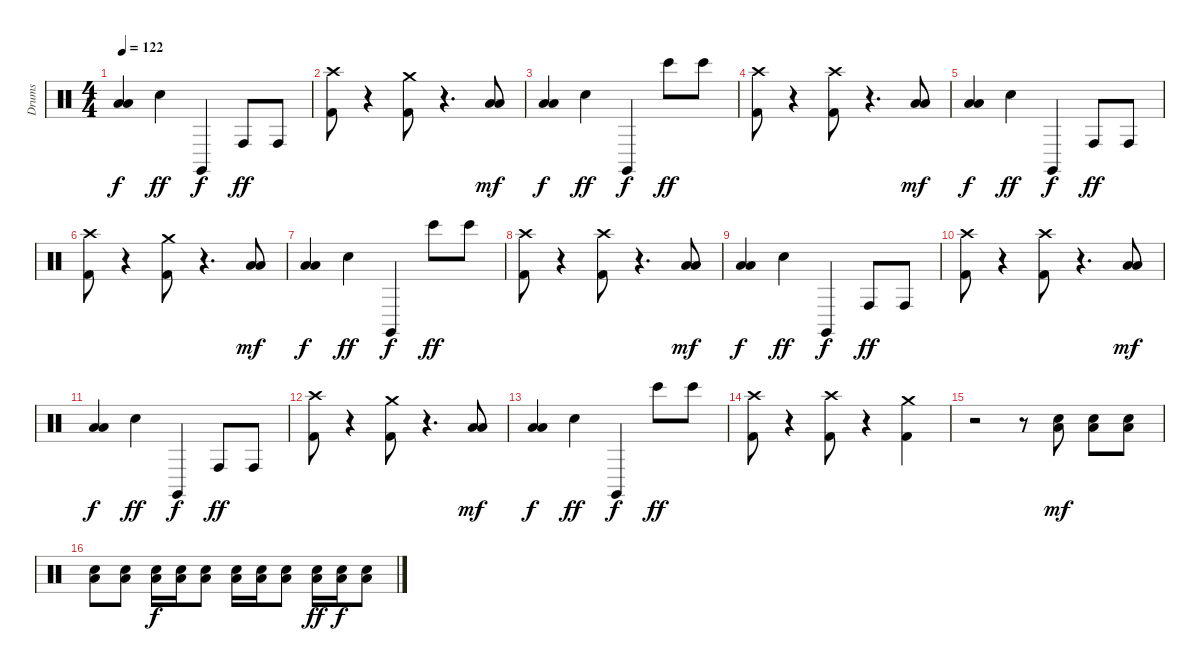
\track ("Drums" "Drums") {instrument percussion}
\staff {score}
\articulation defaults
\ts (4 4)
\tempo 122
\clef neutral
\ks c
("Low Tom (hit)" "Low Floor Tom (hit)").4{dy f} "Snare (hit) 2".4{dy ff} "Claves (hit)".4{dy f} "Conga high (hit)".8{dy ff} "Conga high (hit)".8 |
("Crash high (hit)" "Kick (hit) 2").8 r.4 ("Crash medium (hit)" "Kick (hit) 2").8 r.4{d} ("Low Floor Tom (hit)" "Low Tom (hit)").8{dy mf} |
("Low Tom (hit)" "Low Floor Tom (hit)").4{dy f} "Snare (hit) 2".4{dy ff} "Claves (hit)".4{dy f} "Bongo High (hit)".8{dy ff} "Bongo High (hit)".8 |
("Crash high (hit)" "Kick (hit) 2").8 r.4 ("Crash high (hit)" "Kick (hit) 2").8 r.4{d} ("Low Floor Tom (hit)" "Low Tom (hit)").8{dy mf} |
("Low Tom (hit)" "Low Floor Tom (hit)").4{dy f} "Snare (hit) 2".4{dy ff} "Claves (hit)".4{dy f} "Conga high (hit)".8{dy ff} "Conga high (hit)".8 |
("Crash high (hit)" "Kick (hit) 2").8 r.4 ("Crash medium (hit)" "Kick (hit) 2").8 r.4{d} ("Low Floor Tom (hit)" "Low Tom (hit)").8{dy mf} |
("Low Tom (hit)" "Low Floor Tom (hit)").4{dy f} "Snare (hit) 2".4{dy ff} "Claves (hit)".4{dy f} "Bongo High (hit)".8{dy ff} "Bongo High (hit)".8 |
("Crash high (hit)" "Kick (hit) 2").8 r.4 ("Crash high (hit)" "Kick (hit) 2").8 r.4{d} ("Low Floor Tom (hit)" "Low Tom (hit)").8{dy mf} |
("Low Tom (hit)" "Low Floor Tom (hit)").4{dy f} "Snare (hit) 2".4{dy ff} "Claves (hit)".4{dy f} "Conga high (hit)".8{dy ff} "Conga high (hit)".8 |
("Crash high (hit)" "Kick (hit) 2").8 r.4 ("Crash high (hit)" "Kick (hit) 2").8 r.4{d} ("Low Floor Tom (hit)" "Low Tom (hit)").8{dy mf} |
("Low Tom (hit)" "Low Floor Tom (hit)").4{dy f} "Snare (hit) 2".4{dy ff} "Claves (hit)".4{dy f} "Conga high (hit)".8{dy ff} "Conga high (hit)".8 |
("Crash high (hit)" "Kick (hit) 2").8 r.4 ("Crash medium (hit)" "Kick (hit) 2").8 r.4{d} ("Low Floor Tom (hit)" "Low Tom (hit)").8{dy mf} |
("Low Tom (hit)" "Low Floor Tom (hit)").4{dy f} "Snare (hit) 2".4{dy ff} "Claves (hit)".4{dy f} "Bongo High (hit)".8{dy ff} "Bongo High (hit)".8 |
("Crash high (hit)" "Kick (hit) 2").8 r.4 ("Crash high (hit)" "Kick (hit) 2").8 r.4 ("Crash medium (hit)" "Kick (hit) 2").4 |
r.2 r.8 ("Low Floor Tom (hit)" "Snare (hit) 2").8{dy mf} ("Low Floor Tom (hit)" "Snare (hit) 2").8 ("Snare (hit) 2" "Low Floor Tom (hit)").8 |
("Low Floor Tom (hit)" "Snare (hit) 2").8 ("Low Floor Tom (hit)" "Snare (hit) 2").8 ("Low Floor Tom (hit)" "Snare (hit) 2").16{dy f} ("Low Floor Tom (hit)" "Snare (hit) 2").16 ("Low Floor Tom (hit)" "Snare (hit) 2").8 ("Snare (hit) 2" "Low Floor Tom (hit)").16 ("Snare (hit) 2" "Low Floor Tom (hit)").16 ("Snare (hit) 2" "Low Floor Tom (hit)").8 ("Snare (hit) 2" "Low Floor Tom (hit)").16{dy ff} ("Snare (hit) 2" "Low Floor Tom (hit)").16{dy f} ("Snare (hit) 2" "Low Floor Tom (hit)").8
